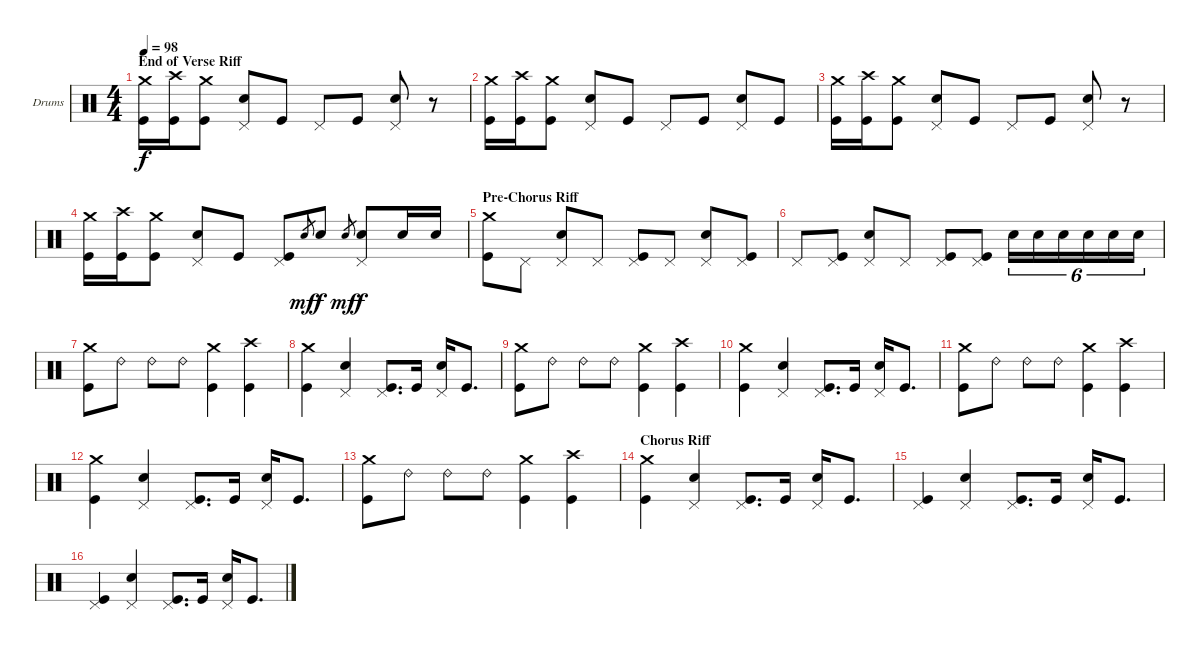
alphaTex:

\bracketExtendMode groupsimilarinstruments
\firstSystemTrackNameOrientation horizontal
\otherSystemsTrackNameOrientation horizontal
\track ("Drumkit" "Drums") {instrument percussion}
\staff {score}
\articulation defaults
\ts (4 4)
\section ("" "End of Verse Riff")
\tempo 98
\clef neutral
\ks c
("Crash medium (hit)" "Kick (hit)").16{dy f} ("Crash high (hit)" "Kick (hit)").16 ("Crash medium (hit)" "Kick (hit)").8 ("Pedal Hi-Hat (hit)" "Snare (hit) 2").8 "Kick (hit)".8 "Pedal Hi-Hat (hit)".8 "Kick (hit)".8 ("Pedal Hi-Hat (hit)" "Snare (hit) 2").8 r.8 |
("Crash medium (hit)" "Kick (hit)").16 ("Crash high (hit)" "Kick (hit)").16 ("Crash medium (hit)" "Kick (hit)").8 ("Pedal Hi-Hat (hit)" "Snare (hit) 2").8 "Kick (hit)".8 "Pedal Hi-Hat (hit)".8 "Kick (hit)".8 ("Pedal Hi-Hat (hit)" "Snare (hit) 2").8 "Kick (hit)".8 |
("Crash medium (hit)" "Kick (hit)").16 ("Crash high (hit)" "Kick (hit)").16 ("Crash medium (hit)" "Kick (hit)").8 ("Pedal Hi-Hat (hit)" "Snare (hit) 2").8 "Kick (hit)".8 "Pedal Hi-Hat (hit)".8 "Kick (hit)".8 ("Pedal Hi-Hat (hit)" "Snare (hit) 2").8 r.8 |
("Crash medium (hit)" "Kick (hit)").16 ("Crash high (hit)" "Kick (hit)").16 ("Crash medium (hit)" "Kick (hit)").8 ("Pedal Hi-Hat (hit)" "Snare (hit) 2").8 "Kick (hit)".8 ("Pedal Hi-Hat (hit)" "Kick (hit)").8 "Snare (hit) 2".8{gr dy mf} "Snare (hit) 2".8{dy f} "Snare (hit) 2".8{gr dy mf} ("Pedal Hi-Hat (hit)" "Snare (hit) 2").8{dy f} "Snare (hit) 2".16 "Snare (hit) 2".16 |
\section ("" "Pre-Chorus Riff")
("Crash medium (hit)" "Kick (hit)").8 "Pedal Hi-Hat (hit)".8 ("Pedal Hi-Hat (hit)" "Snare (hit) 2").8 "Pedal Hi-Hat (hit)".8 ("Pedal Hi-Hat (hit)" "Kick (hit)").8 "Pedal Hi-Hat (hit)".8 ("Pedal Hi-Hat (hit)" "Snare (hit) 2").8 ("Pedal Hi-Hat (hit)" "Kick (hit)").8 |
"Pedal Hi-Hat (hit)".8 ("Pedal Hi-Hat (hit)" "Kick (hit)").8 ("Pedal Hi-Hat (hit)" "Snare (hit) 2").8 "Pedal Hi-Hat (hit)".8 ("Pedal Hi-Hat (hit)" "Kick (hit)").8 ("Pedal Hi-Hat (hit)" "Kick (hit)").8 "Snare (hit) 2".16{tu (6 4)} "Snare (hit) 2".16{tu (6 4)} "Snare (hit) 2".16{tu (6 4)} "Snare (hit) 2".16{tu (6 4)} "Snare (hit) 2".16{tu (6 4)} "Snare (hit) 2".16{tu (6 4)} |
("Crash medium (hit)" "Kick (hit)").8 "Ride (bell) 2".8 "Ride (bell) 2".8 "Ride (bell) 2".8 ("Crash medium (hit)" "Kick (hit)").4 ("Crash high (hit)" "Kick (hit)").4 |
("Crash medium (hit)" "Kick (hit)").4 ("Pedal Hi-Hat (hit)" "Snare (hit) 2").4 ("Pedal Hi-Hat (hit)" "Kick (hit)").8{d} "Kick (hit)".16 ("Pedal Hi-Hat (hit)" "Snare (hit) 2").16 "Kick (hit)".8{d} |
("Crash medium (hit)" "Kick (hit)").8 "Ride (bell) 2".8 "Ride (bell) 2".8 "Ride (bell) 2".8 ("Crash medium (hit)" "Kick (hit)").4 ("Crash high (hit)" "Kick (hit)").4 |
("Crash medium (hit)" "Kick (hit)").4 ("Pedal Hi-Hat (hit)" "Snare (hit) 2").4 ("Pedal Hi-Hat (hit)" "Kick (hit)").8{d} "Kick (hit)".16 ("Pedal Hi-Hat (hit)" "Snare (hit) 2").16 "Kick (hit)".8{d} |
("Crash medium (hit)" "Kick (hit)").8 "Ride (bell) 2".8 "Ride (bell) 2".8 "Ride (bell) 2".8 ("Crash medium (hit)" "Kick (hit)").4 ("Crash high (hit)" "Kick (hit)").4 |
("Crash medium (hit)" "Kick (hit)").4 ("Pedal Hi-Hat (hit)" "Snare (hit) 2").4 ("Pedal Hi-Hat (hit)" "Kick (hit)").8{d} "Kick (hit)".16 ("Pedal Hi-Hat (hit)" "Snare (hit) 2").16 "Kick (hit)".8{d} |
("Crash medium (hit)" "Kick (hit)").8 "Ride (bell) 2".8 "Ride (bell) 2".8 "Ride (bell) 2".8 ("Crash medium (hit)" "Kick (hit)").4 ("Crash high (hit)" "Kick (hit)").4 |
\section ("" "Chorus Riff")
("Crash medium (hit)" "Kick (hit)").4 ("Pedal Hi-Hat (hit)" "Snare (hit) 2").4 ("Pedal Hi-Hat (hit)" "Kick (hit)").8{d} "Kick (hit)".16 ("Pedal Hi-Hat (hit)" "Snare (hit) 2").16 "Kick (hit)".8{d} |
("Pedal Hi-Hat (hit)" "Kick (hit)").4 ("Pedal Hi-Hat (hit)" "Snare (hit) 2").4 ("Pedal Hi-Hat (hit)" "Kick (hit)").8{d} "Kick (hit)".16 ("Pedal Hi-Hat (hit)" "Snare (hit) 2").16 "Kick (hit)".8{d} |
("Pedal Hi-Hat (hit)" "Kick (hit)").4 ("Pedal Hi-Hat (hit)" "Snare (hit) 2").4 ("Pedal Hi-Hat (hit)" "Kick (hit)").8{d} "Kick (hit)".16 ("Pedal Hi-Hat (hit)" "Snare (hit) 2").16 "Kick (hit)".8{d}
